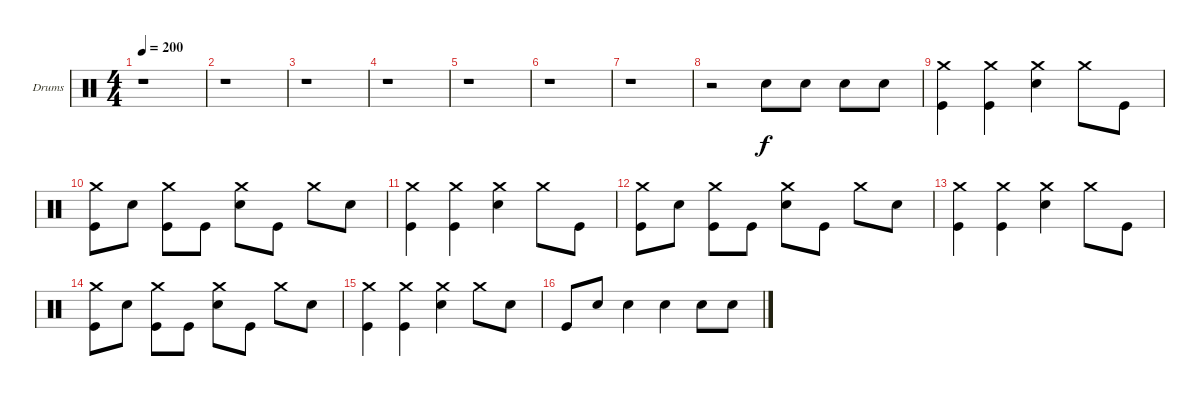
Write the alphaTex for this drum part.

\bracketExtendMode groupsimilarinstruments
\firstSystemTrackNameOrientation horizontal
\otherSystemsTrackNameOrientation horizontal
\track ("Drumkit" "Drums") {instrument percussion}
\staff {score}
\articulation defaults
\ts (4 4)
\tempo 200
\clef neutral
\ks c
r.1{dy f} |
r.1 |
r.1 |
r.1 |
r.1 |
r.1 |
r.1 |
r.2 "Snare (hit) 2".8 "Snare (hit) 2".8 "Snare (hit) 2".8 "Snare (hit) 2".8 |
("Kick (hit)" "Crash medium (hit)").4 ("Kick (hit)" "Crash medium (hit)").4 ("Snare (hit) 2" "Crash medium (hit)").4 "Crash medium (hit)".8 "Kick (hit)".8 |
("Kick (hit)" "Crash medium (hit)").8 "Snare (hit) 2".8 ("Kick (hit)" "Crash medium (hit)").8 "Kick (hit)".8 ("Snare (hit) 2" "Crash medium (hit)").8 "Kick (hit)".8 "Crash medium (hit)".8 "Snare (hit) 2".8 |
("Kick (hit)" "Crash medium (hit)").4 ("Kick (hit)" "Crash medium (hit)").4 ("Snare (hit) 2" "Crash medium (hit)").4 "Crash medium (hit)".8 "Kick (hit)".8 |
("Kick (hit)" "Crash medium (hit)").8 "Snare (hit) 2".8 ("Kick (hit)" "Crash medium (hit)").8 "Kick (hit)".8 ("Snare (hit) 2" "Crash medium (hit)").8 "Kick (hit)".8 "Crash medium (hit)".8 "Snare (hit) 2".8 |
("Kick (hit)" "Crash medium (hit)").4 ("Kick (hit)" "Crash medium (hit)").4 ("Snare (hit) 2" "Crash medium (hit)").4 "Crash medium (hit)".8 "Kick (hit)".8 |
("Kick (hit)" "Crash medium (hit)").8 "Snare (hit) 2".8 ("Kick (hit)" "Crash medium (hit)").8 "Kick (hit)".8 ("Snare (hit) 2" "Crash medium (hit)").8 "Kick (hit)".8 "Crash medium (hit)".8 "Snare (hit) 2".8 |
("Kick (hit)" "Crash medium (hit)").4 ("Kick (hit)" "Crash medium (hit)").4 ("Snare (hit) 2" "Crash medium (hit)").4 "Crash medium (hit)".8 "Snare (hit) 2".8 |
"Kick (hit)".8 "Snare (hit) 2".8 "Snare (hit) 2".4 "Snare (hit) 2".4 "Snare (hit) 2".8 "Snare (hit) 2".8
